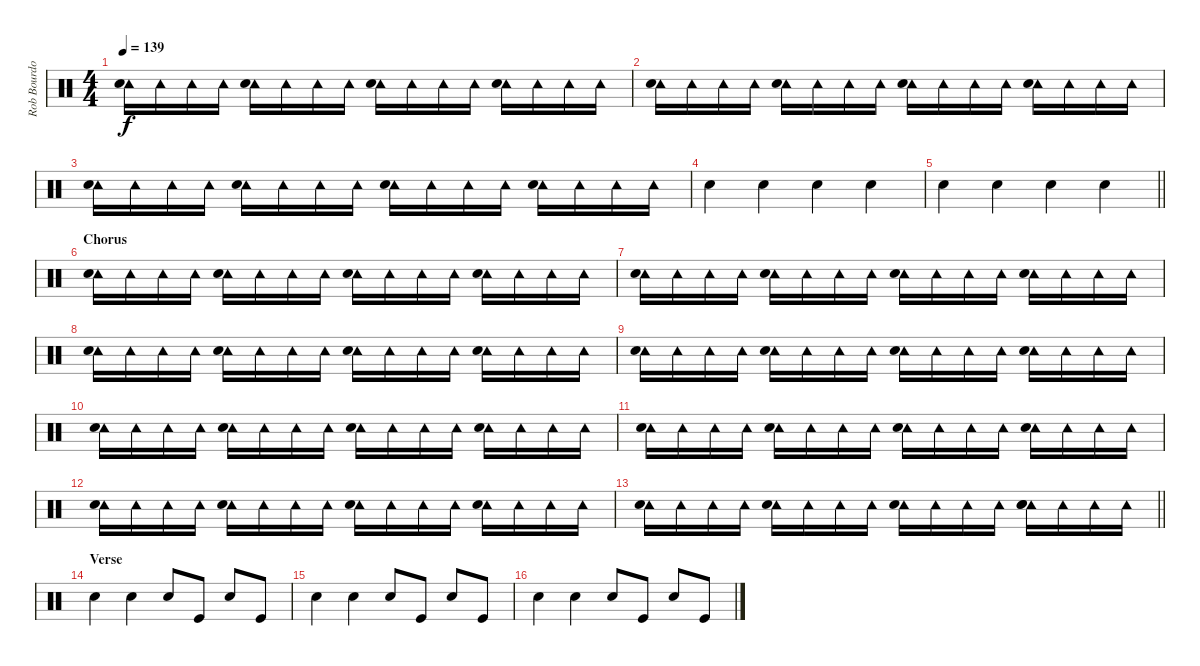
\track ("Rob Bourdon [Drums] / Clap from Audience" "Rob Bourdo") {instrument percussion}
\staff {score}
\articulation defaults
\ts (4 4)
\tempo 139
\clef neutral
\ks c
("Tambourine (hit)" "Hand Clap (hit)").16{dy f} "Tambourine (hit)".16 "Tambourine (hit)".16 "Tambourine (hit)".16 ("Tambourine (hit)" "Hand Clap (hit)").16 "Tambourine (hit)".16 "Tambourine (hit)".16 "Tambourine (hit)".16 ("Tambourine (hit)" "Hand Clap (hit)").16 "Tambourine (hit)".16 "Tambourine (hit)".16 "Tambourine (hit)".16 ("Tambourine (hit)" "Hand Clap (hit)").16 "Tambourine (hit)".16 "Tambourine (hit)".16 "Tambourine (hit)".16 |
("Tambourine (hit)" "Hand Clap (hit)").16 "Tambourine (hit)".16 "Tambourine (hit)".16 "Tambourine (hit)".16 ("Tambourine (hit)" "Hand Clap (hit)").16 "Tambourine (hit)".16 "Tambourine (hit)".16 "Tambourine (hit)".16 ("Tambourine (hit)" "Hand Clap (hit)").16 "Tambourine (hit)".16 "Tambourine (hit)".16 "Tambourine (hit)".16 ("Tambourine (hit)" "Hand Clap (hit)").16 "Tambourine (hit)".16 "Tambourine (hit)".16 "Tambourine (hit)".16 |
("Tambourine (hit)" "Hand Clap (hit)").16 "Tambourine (hit)".16 "Tambourine (hit)".16 "Tambourine (hit)".16 ("Tambourine (hit)" "Hand Clap (hit)").16 "Tambourine (hit)".16 "Tambourine (hit)".16 "Tambourine (hit)".16 ("Tambourine (hit)" "Hand Clap (hit)").16 "Tambourine (hit)".16 "Tambourine (hit)".16 "Tambourine (hit)".16 ("Tambourine (hit)" "Hand Clap (hit)").16 "Tambourine (hit)".16 "Tambourine (hit)".16 "Tambourine (hit)".16 |
"Hand Clap (hit)".4 "Hand Clap (hit)".4 "Hand Clap (hit)".4 "Hand Clap (hit)".4 |
\barLineRight lightlight "Hand Clap (hit)".4 "Hand Clap (hit)".4 "Hand Clap (hit)".4 "Hand Clap (hit)".4
|
\section ("" "Chorus")
("Tambourine (hit)" "Hand Clap (hit)").16 "Tambourine (hit)".16 "Tambourine (hit)".16 "Tambourine (hit)".16 ("Tambourine (hit)" "Hand Clap (hit)").16 "Tambourine (hit)".16 "Tambourine (hit)".16 "Tambourine (hit)".16 ("Tambourine (hit)" "Hand Clap (hit)").16 "Tambourine (hit)".16 "Tambourine (hit)".16 "Tambourine (hit)".16 ("Tambourine (hit)" "Hand Clap (hit)").16 "Tambourine (hit)".16 "Tambourine (hit)".16 "Tambourine (hit)".16 |
("Tambourine (hit)" "Hand Clap (hit)").16 "Tambourine (hit)".16 "Tambourine (hit)".16 "Tambourine (hit)".16 ("Tambourine (hit)" "Hand Clap (hit)").16 "Tambourine (hit)".16 "Tambourine (hit)".16 "Tambourine (hit)".16 ("Tambourine (hit)" "Hand Clap (hit)").16 "Tambourine (hit)".16 "Tambourine (hit)".16 "Tambourine (hit)".16 ("Tambourine (hit)" "Hand Clap (hit)").16 "Tambourine (hit)".16 "Tambourine (hit)".16 "Tambourine (hit)".16 |
("Tambourine (hit)" "Hand Clap (hit)").16 "Tambourine (hit)".16 "Tambourine (hit)".16 "Tambourine (hit)".16 ("Tambourine (hit)" "Hand Clap (hit)").16 "Tambourine (hit)".16 "Tambourine (hit)".16 "Tambourine (hit)".16 ("Tambourine (hit)" "Hand Clap (hit)").16 "Tambourine (hit)".16 "Tambourine (hit)".16 "Tambourine (hit)".16 ("Tambourine (hit)" "Hand Clap (hit)").16 "Tambourine (hit)".16 "Tambourine (hit)".16 "Tambourine (hit)".16 |
("Tambourine (hit)" "Hand Clap (hit)").16 "Tambourine (hit)".16 "Tambourine (hit)".16 "Tambourine (hit)".16 ("Tambourine (hit)" "Hand Clap (hit)").16 "Tambourine (hit)".16 "Tambourine (hit)".16 "Tambourine (hit)".16 ("Tambourine (hit)" "Hand Clap (hit)").16 "Tambourine (hit)".16 "Tambourine (hit)".16 "Tambourine (hit)".16 ("Tambourine (hit)" "Hand Clap (hit)").16 "Tambourine (hit)".16 "Tambourine (hit)".16 "Tambourine (hit)".16 |
("Tambourine (hit)" "Hand Clap (hit)").16 "Tambourine (hit)".16 "Tambourine (hit)".16 "Tambourine (hit)".16 ("Tambourine (hit)" "Hand Clap (hit)").16 "Tambourine (hit)".16 "Tambourine (hit)".16 "Tambourine (hit)".16 ("Tambourine (hit)" "Hand Clap (hit)").16 "Tambourine (hit)".16 "Tambourine (hit)".16 "Tambourine (hit)".16 ("Tambourine (hit)" "Hand Clap (hit)").16 "Tambourine (hit)".16 "Tambourine (hit)".16 "Tambourine (hit)".16 |
("Tambourine (hit)" "Hand Clap (hit)").16 "Tambourine (hit)".16 "Tambourine (hit)".16 "Tambourine (hit)".16 ("Tambourine (hit)" "Hand Clap (hit)").16 "Tambourine (hit)".16 "Tambourine (hit)".16 "Tambourine (hit)".16 ("Tambourine (hit)" "Hand Clap (hit)").16 "Tambourine (hit)".16 "Tambourine (hit)".16 "Tambourine (hit)".16 ("Tambourine (hit)" "Hand Clap (hit)").16 "Tambourine (hit)".16 "Tambourine (hit)".16 "Tambourine (hit)".16 |
("Tambourine (hit)" "Hand Clap (hit)").16 "Tambourine (hit)".16 "Tambourine (hit)".16 "Tambourine (hit)".16 ("Tambourine (hit)" "Hand Clap (hit)").16 "Tambourine (hit)".16 "Tambourine (hit)".16 "Tambourine (hit)".16 ("Tambourine (hit)" "Hand Clap (hit)").16 "Tambourine (hit)".16 "Tambourine (hit)".16 "Tambourine (hit)".16 ("Tambourine (hit)" "Hand Clap (hit)").16 "Tambourine (hit)".16 "Tambourine (hit)".16 "Tambourine (hit)".16 |
\barLineRight lightlight
("Tambourine (hit)" "Hand Clap (hit)").16 "Tambourine (hit)".16 "Tambourine (hit)".16 "Tambourine (hit)".16 ("Tambourine (hit)" "Hand Clap (hit)").16 "Tambourine (hit)".16 "Tambourine (hit)".16 "Tambourine (hit)".16 ("Tambourine (hit)" "Hand Clap (hit)").16 "Tambourine (hit)".16 "Tambourine (hit)".16 "Tambourine (hit)".16 ("Tambourine (hit)" "Hand Clap (hit)" "Snare (hit) 2").16 "Tambourine (hit)".16 "Tambourine (hit)".16 "Tambourine (hit)".16 |
\section ("" "Verse")
"Snare (hit) 2".4 "Snare (hit) 2".4 "Snare (hit) 2".8 "Kick (hit)".8 "Snare (hit) 2".8 "Kick (hit)".8 |
"Snare (hit) 2".4 "Snare (hit) 2".4 "Snare (hit) 2".8 "Kick (hit)".8 "Snare (hit) 2".8 "Kick (hit)".8 |
"Snare (hit) 2".4 "Snare (hit) 2".4 "Snare (hit) 2".8 "Kick (hit)".8 "Snare (hit) 2".8 "Kick (hit)".8
